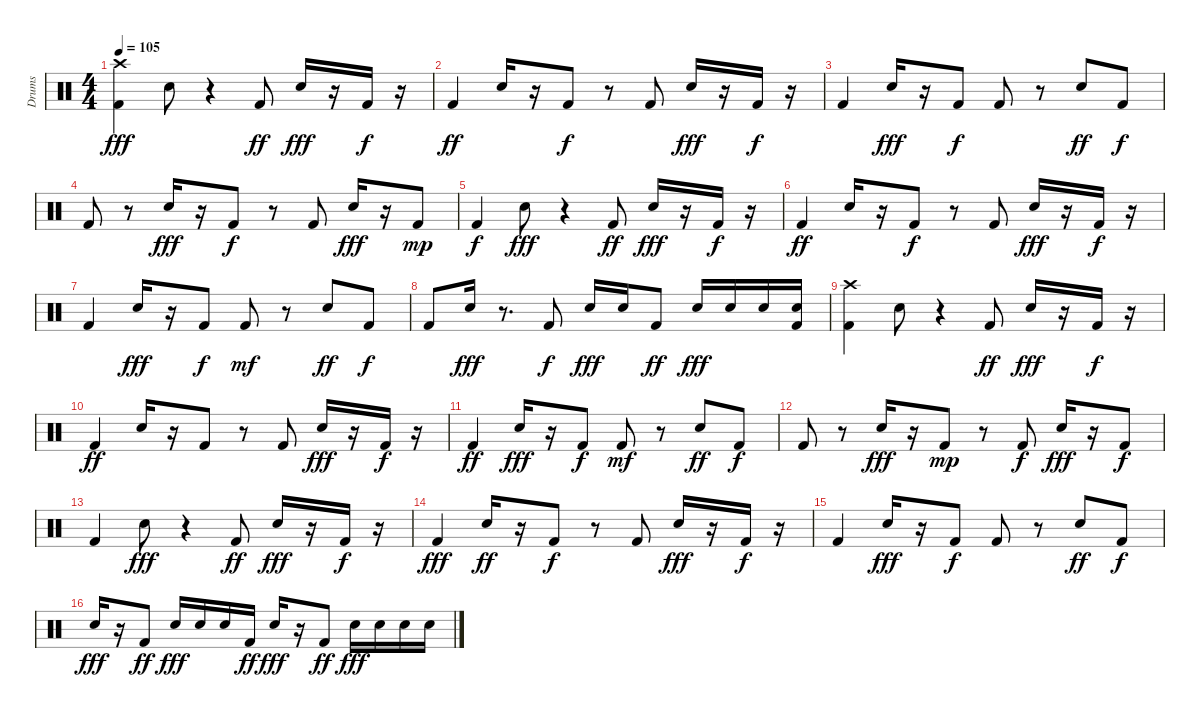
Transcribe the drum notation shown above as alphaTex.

\track ("Drums" "Drums") {instrument percussion}
\staff {score}
\articulation defaults
\ts (4 4)
\tempo 105
\clef neutral
\ks c
("Crash high (hit)" "Kick (hit) 2").4{dy fff} "Snare (hit) 2".8 r.4 "Kick (hit) 2".8{dy ff} "Snare (hit) 2".16{dy fff} r.16 "Kick (hit) 2".16{dy f} r.16 |
"Kick (hit) 2".4{dy ff} "Snare (hit) 2".16 r.16 "Kick (hit) 2".8{dy f} r.8 "Kick (hit) 2".8 "Snare (hit) 2".16{dy fff} r.16 "Kick (hit) 2".16{dy f} r.16 |
"Kick (hit) 2".4 "Snare (hit) 2".16{dy fff} r.16 "Kick (hit) 2".8{dy f} "Kick (hit) 2".8 r.8 "Snare (hit) 2".8{dy ff} "Kick (hit) 2".8{dy f} |
"Kick (hit) 2".8 r.8 "Snare (hit) 2".16{dy fff} r.16 "Kick (hit) 2".8{dy f} r.8 "Kick (hit) 2".8 "Snare (hit) 2".16{dy fff} r.16 "Kick (hit) 2".8{dy mp} |
"Kick (hit) 2".4{dy f} "Snare (hit) 2".8{dy fff} r.4 "Kick (hit) 2".8{dy ff} "Snare (hit) 2".16{dy fff} r.16 "Kick (hit) 2".16{dy f} r.16 |
"Kick (hit) 2".4{dy ff} "Snare (hit) 2".16 r.16 "Kick (hit) 2".8{dy f} r.8 "Kick (hit) 2".8 "Snare (hit) 2".16{dy fff} r.16 "Kick (hit) 2".16{dy f} r.16 |
"Kick (hit) 2".4 "Snare (hit) 2".16{dy fff} r.16 "Kick (hit) 2".8{dy f} "Kick (hit) 2".8{dy mf} r.8 "Snare (hit) 2".8{dy ff} "Kick (hit) 2".8{dy f} |
"Kick (hit) 2".8 "Snare (hit) 2".16{dy fff} r.8{d} "Kick (hit) 2".8{dy f} "Snare (hit) 2".16{dy fff} "Snare (hit) 2".16 "Kick (hit) 2".8{dy ff} "Snare (hit) 2".16{dy fff} "Snare (hit) 2".16 "Snare (hit) 2".16 ("Snare (hit) 2" "Kick (hit) 2").16 |
("Crash high (hit)" "Kick (hit) 2").4 "Snare (hit) 2".8 r.4 "Kick (hit) 2".8{dy ff} "Snare (hit) 2".16{dy fff} r.16 "Kick (hit) 2".16{dy f} r.16 |
"Kick (hit) 2".4{dy ff} "Snare (hit) 2".16 r.16 "Kick (hit) 2".8 r.8 "Kick (hit) 2".8 "Snare (hit) 2".16{dy fff} r.16 "Kick (hit) 2".16{dy f} r.16 |
"Kick (hit) 2".4{dy ff} "Snare (hit) 2".16{dy fff} r.16 "Kick (hit) 2".8{dy f} "Kick (hit) 2".8{dy mf} r.8 "Snare (hit) 2".8{dy ff} "Kick (hit) 2".8{dy f} |
"Kick (hit) 2".8 r.8 "Snare (hit) 2".16{dy fff} r.16 "Kick (hit) 2".8{dy mp} r.8 "Kick (hit) 2".8{dy f} "Snare (hit) 2".16{dy fff} r.16 "Kick (hit) 2".8{dy f} |
"Kick (hit) 2".4 "Snare (hit) 2".8{dy fff} r.4 "Kick (hit) 2".8{dy ff} "Snare (hit) 2".16{dy fff} r.16 "Kick (hit) 2".16{dy f} r.16 |
"Kick (hit) 2".4{dy fff} "Snare (hit) 2".16{dy ff} r.16 "Kick (hit) 2".8{dy f} r.8 "Kick (hit) 2".8 "Snare (hit) 2".16{dy fff} r.16 "Kick (hit) 2".16{dy f} r.16 |
"Kick (hit) 2".4 "Snare (hit) 2".16{dy fff} r.16 "Kick (hit) 2".8{dy f} "Kick (hit) 2".8 r.8 "Snare (hit) 2".8{dy ff} "Kick (hit) 2".8{dy f} |
"Snare (hit) 2".16{dy fff} r.16 "Kick (hit) 2".8{dy ff} "Snare (hit) 2".16{dy fff} "Snare (hit) 2".16 "Snare (hit) 2".16 "Kick (hit) 2".16{dy ff} "Snare (hit) 2".16{dy fff} r.16 "Kick (hit) 2".8{dy ff} "Snare (hit) 2".16{dy fff} "Snare (hit) 2".16 "Snare (hit) 2".16 "Snare (hit) 2".16
